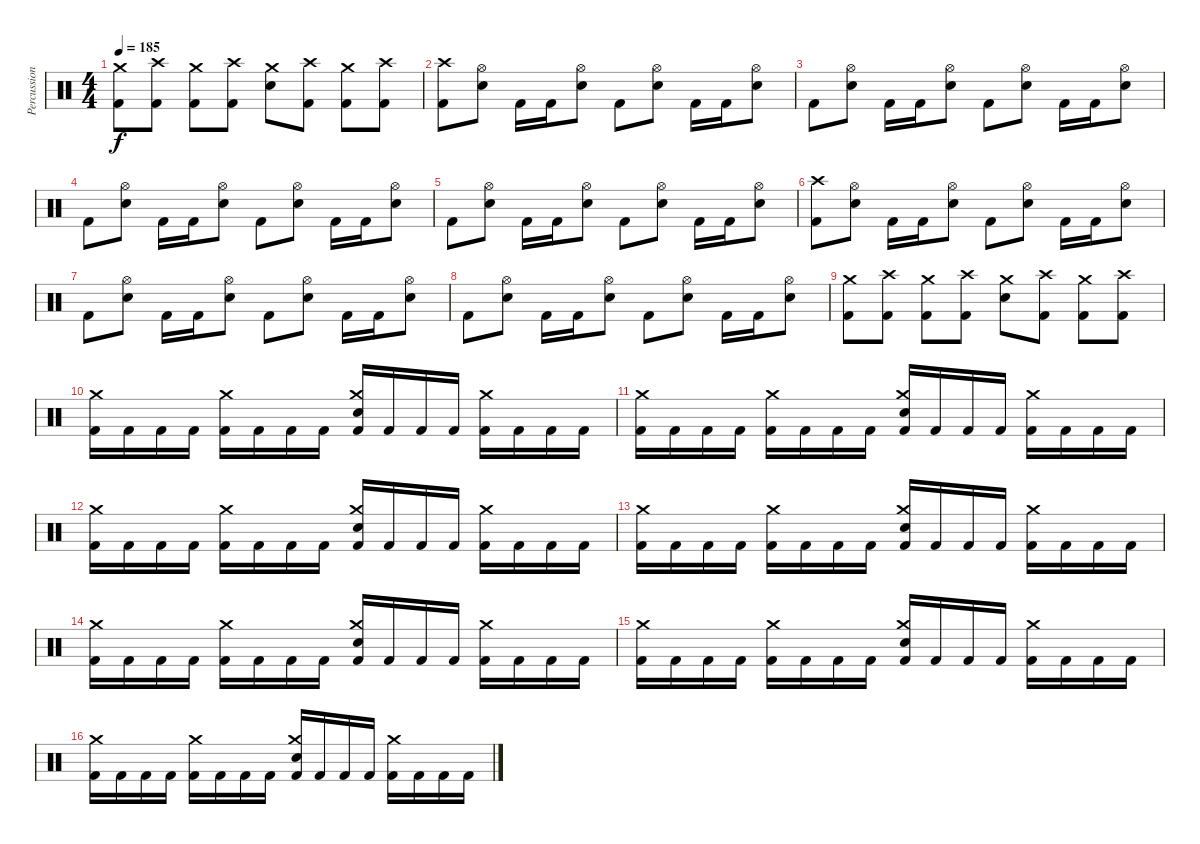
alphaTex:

\track ("Percussion" "Percussion") {instrument percussion}
\staff {score}
\articulation defaults
\ts (4 4)
\tempo 185
\clef neutral
\ks c
("Kick (hit) 2" "Crash medium (hit)").8{dy f} ("Kick (hit) 2" "Crash high (hit)").8 ("Kick (hit) 2" "Crash medium (hit)").8 ("Kick (hit) 2" "Crash high (hit)").8 ("Electric Snare (hit)" "Crash medium (hit)").8 ("Kick (hit) 2" "Crash high (hit)").8 ("Kick (hit) 2" "Crash medium (hit)").8 ("Kick (hit) 2" "Crash high (hit)").8 |
("Kick (hit) 2" "Crash high (hit)").8 ("Electric Snare (hit)" "Hi-Hat (open)").8 "Kick (hit) 2".16 "Kick (hit) 2".16 ("Electric Snare (hit)" "Hi-Hat (open)").8 "Kick (hit) 2".8 ("Electric Snare (hit)" "Hi-Hat (open)").8 "Kick (hit) 2".16 "Kick (hit) 2".16 ("Electric Snare (hit)" "Hi-Hat (open)").8 |
"Kick (hit) 2".8 ("Electric Snare (hit)" "Hi-Hat (open)").8 "Kick (hit) 2".16 "Kick (hit) 2".16 ("Electric Snare (hit)" "Hi-Hat (open)").8 "Kick (hit) 2".8 ("Electric Snare (hit)" "Hi-Hat (open)").8 "Kick (hit) 2".16 "Kick (hit) 2".16 ("Electric Snare (hit)" "Hi-Hat (open)").8 |
"Kick (hit) 2".8 ("Electric Snare (hit)" "Hi-Hat (open)").8 "Kick (hit) 2".16 "Kick (hit) 2".16 ("Electric Snare (hit)" "Hi-Hat (open)").8 "Kick (hit) 2".8 ("Electric Snare (hit)" "Hi-Hat (open)").8 "Kick (hit) 2".16 "Kick (hit) 2".16 ("Electric Snare (hit)" "Hi-Hat (open)").8 |
"Kick (hit) 2".8 ("Electric Snare (hit)" "Hi-Hat (open)").8 "Kick (hit) 2".16 "Kick (hit) 2".16 ("Electric Snare (hit)" "Hi-Hat (open)").8 "Kick (hit) 2".8 ("Electric Snare (hit)" "Hi-Hat (open)").8 "Kick (hit) 2".16 "Kick (hit) 2".16 ("Electric Snare (hit)" "Hi-Hat (open)").8 |
("Kick (hit) 2" "Crash high (hit)").8 ("Electric Snare (hit)" "Hi-Hat (open)").8 "Kick (hit) 2".16 "Kick (hit) 2".16 ("Electric Snare (hit)" "Hi-Hat (open)").8 "Kick (hit) 2".8 ("Electric Snare (hit)" "Hi-Hat (open)").8 "Kick (hit) 2".16 "Kick (hit) 2".16 ("Electric Snare (hit)" "Hi-Hat (open)").8 |
"Kick (hit) 2".8 ("Electric Snare (hit)" "Hi-Hat (open)").8 "Kick (hit) 2".16 "Kick (hit) 2".16 ("Electric Snare (hit)" "Hi-Hat (open)").8 "Kick (hit) 2".8 ("Electric Snare (hit)" "Hi-Hat (open)").8 "Kick (hit) 2".16 "Kick (hit) 2".16 ("Electric Snare (hit)" "Hi-Hat (open)").8 |
"Kick (hit) 2".8 ("Electric Snare (hit)" "Hi-Hat (open)").8 "Kick (hit) 2".16 "Kick (hit) 2".16 ("Electric Snare (hit)" "Hi-Hat (open)").8 "Kick (hit) 2".8 ("Electric Snare (hit)" "Hi-Hat (open)").8 "Kick (hit) 2".16 "Kick (hit) 2".16 ("Electric Snare (hit)" "Hi-Hat (open)").8 |
("Kick (hit) 2" "Crash medium (hit)").8 ("Kick (hit) 2" "Crash high (hit)").8 ("Kick (hit) 2" "Crash medium (hit)").8 ("Kick (hit) 2" "Crash high (hit)").8 ("Electric Snare (hit)" "Crash medium (hit)").8 ("Kick (hit) 2" "Crash high (hit)").8 ("Kick (hit) 2" "Crash medium (hit)").8 ("Kick (hit) 2" "Crash high (hit)").8 |
("Kick (hit) 2" "Crash medium (hit)").16 "Kick (hit) 2".16 "Kick (hit) 2".16 "Kick (hit) 2".16 ("Kick (hit) 2" "Crash medium (hit)").16 "Kick (hit) 2".16 "Kick (hit) 2".16 "Kick (hit) 2".16 ("Kick (hit) 2" "Electric Snare (hit)" "Crash medium (hit)").16 "Kick (hit) 2".16 "Kick (hit) 2".16 "Kick (hit) 2".16 ("Kick (hit) 2" "Crash medium (hit)").16 "Kick (hit) 2".16 "Kick (hit) 2".16 "Kick (hit) 2".16 |
("Kick (hit) 2" "Crash medium (hit)").16 "Kick (hit) 2".16 "Kick (hit) 2".16 "Kick (hit) 2".16 ("Kick (hit) 2" "Crash medium (hit)").16 "Kick (hit) 2".16 "Kick (hit) 2".16 "Kick (hit) 2".16 ("Kick (hit) 2" "Electric Snare (hit)" "Crash medium (hit)").16 "Kick (hit) 2".16 "Kick (hit) 2".16 "Kick (hit) 2".16 ("Kick (hit) 2" "Crash medium (hit)").16 "Kick (hit) 2".16 "Kick (hit) 2".16 "Kick (hit) 2".16 |
("Kick (hit) 2" "Crash medium (hit)").16 "Kick (hit) 2".16 "Kick (hit) 2".16 "Kick (hit) 2".16 ("Kick (hit) 2" "Crash medium (hit)").16 "Kick (hit) 2".16 "Kick (hit) 2".16 "Kick (hit) 2".16 ("Kick (hit) 2" "Electric Snare (hit)" "Crash medium (hit)").16 "Kick (hit) 2".16 "Kick (hit) 2".16 "Kick (hit) 2".16 ("Kick (hit) 2" "Crash medium (hit)").16 "Kick (hit) 2".16 "Kick (hit) 2".16 "Kick (hit) 2".16 |
("Kick (hit) 2" "Crash medium (hit)").16 "Kick (hit) 2".16 "Kick (hit) 2".16 "Kick (hit) 2".16 ("Kick (hit) 2" "Crash medium (hit)").16 "Kick (hit) 2".16 "Kick (hit) 2".16 "Kick (hit) 2".16 ("Kick (hit) 2" "Electric Snare (hit)" "Crash medium (hit)").16 "Kick (hit) 2".16 "Kick (hit) 2".16 "Kick (hit) 2".16 ("Kick (hit) 2" "Crash medium (hit)").16 "Kick (hit) 2".16 "Kick (hit) 2".16 "Kick (hit) 2".16 |
("Kick (hit) 2" "Crash medium (hit)").16 "Kick (hit) 2".16 "Kick (hit) 2".16 "Kick (hit) 2".16 ("Kick (hit) 2" "Crash medium (hit)").16 "Kick (hit) 2".16 "Kick (hit) 2".16 "Kick (hit) 2".16 ("Kick (hit) 2" "Electric Snare (hit)" "Crash medium (hit)").16 "Kick (hit) 2".16 "Kick (hit) 2".16 "Kick (hit) 2".16 ("Kick (hit) 2" "Crash medium (hit)").16 "Kick (hit) 2".16 "Kick (hit) 2".16 "Kick (hit) 2".16 |
("Kick (hit) 2" "Crash medium (hit)").16 "Kick (hit) 2".16 "Kick (hit) 2".16 "Kick (hit) 2".16 ("Kick (hit) 2" "Crash medium (hit)").16 "Kick (hit) 2".16 "Kick (hit) 2".16 "Kick (hit) 2".16 ("Kick (hit) 2" "Electric Snare (hit)" "Crash medium (hit)").16 "Kick (hit) 2".16 "Kick (hit) 2".16 "Kick (hit) 2".16 ("Kick (hit) 2" "Crash medium (hit)").16 "Kick (hit) 2".16 "Kick (hit) 2".16 "Kick (hit) 2".16 |
("Kick (hit) 2" "Crash medium (hit)").16 "Kick (hit) 2".16 "Kick (hit) 2".16 "Kick (hit) 2".16 ("Kick (hit) 2" "Crash medium (hit)").16 "Kick (hit) 2".16 "Kick (hit) 2".16 "Kick (hit) 2".16 ("Kick (hit) 2" "Electric Snare (hit)" "Crash medium (hit)").16 "Kick (hit) 2".16 "Kick (hit) 2".16 "Kick (hit) 2".16 ("Kick (hit) 2" "Crash medium (hit)").16 "Kick (hit) 2".16 "Kick (hit) 2".16 "Kick (hit) 2".16
